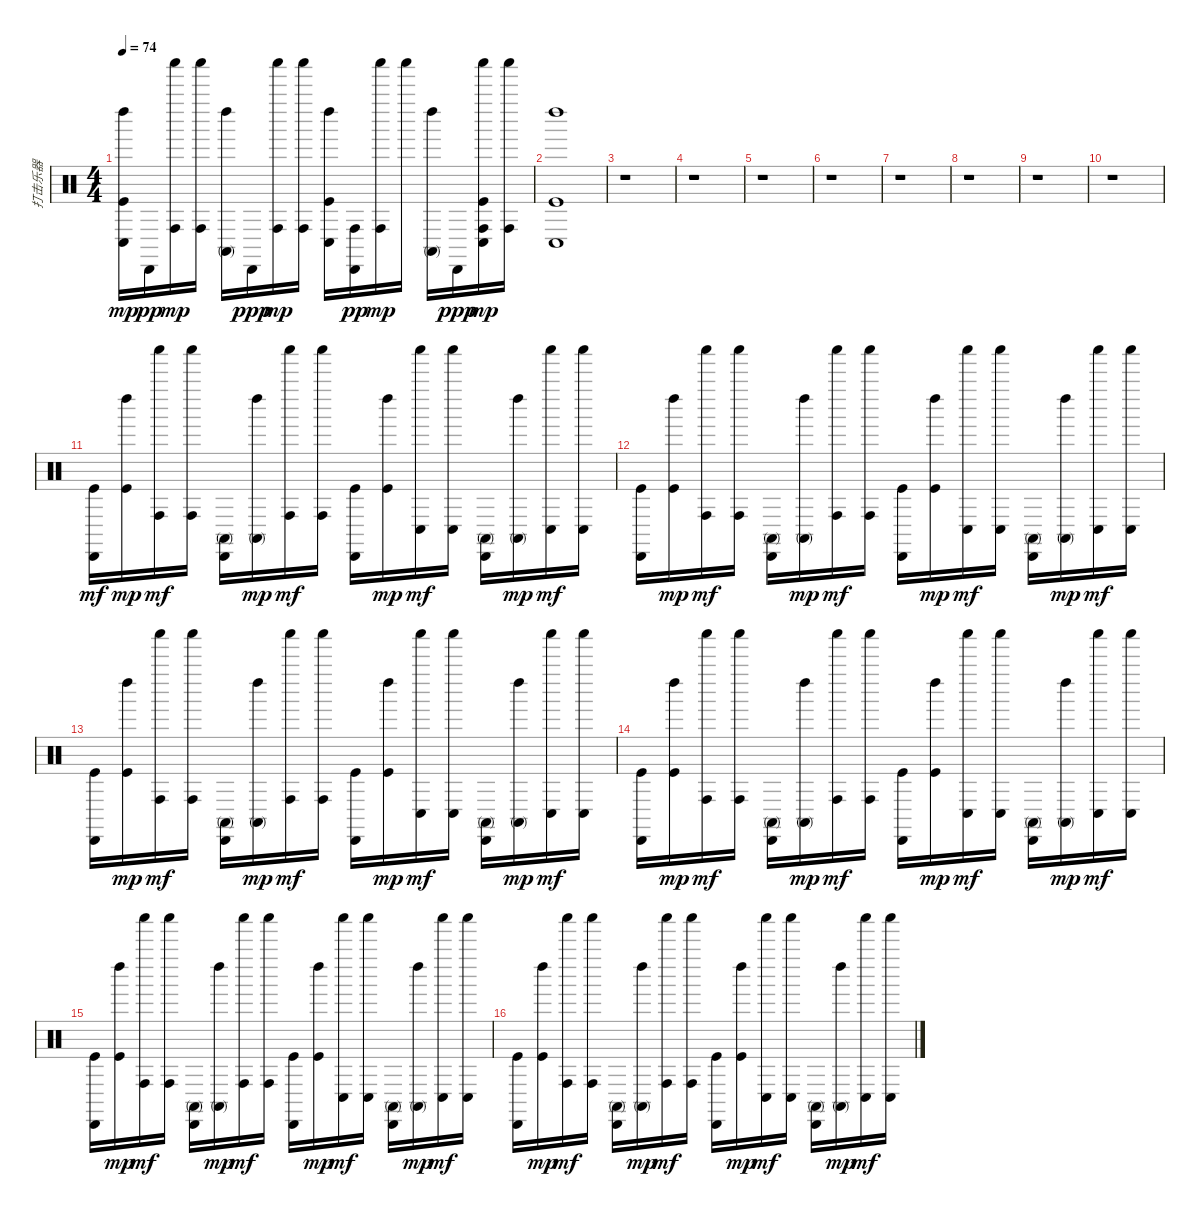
\track ("打击乐器" "打击乐器") {instrument percussion}
\staff {score}
\articulation defaults
\ts (4 4)
\tempo 74
\clef neutral
\ks c
("Kick (hit)" "Conga low (hit)" "Left Maraca (hit)").16{dy mp} "Cabasa (hit)".16{dy pp} ("Conga high (hit)" "Shaker (hit)").16{dy mp} ("Conga high (hit)" "Shaker (hit)").16 ("Conga high (mute)" "Left Maraca (hit)").16 "Cabasa (hit)".16{dy ppp} ("Conga high (hit)" "Shaker (hit)").16{dy mp} ("Conga high (hit)" "Shaker (hit)").16 ("Kick (hit)" "Conga low (hit)" "Left Maraca (hit)").16 ("Conga high (hit)" "Cabasa (hit)").16{dy pp} ("Conga high (hit)" "Shaker (hit)").16{dy mp} "Shaker (hit)".16 ("Conga high (mute)" "Left Maraca (hit)").16 "Cabasa (hit)".16{dy ppp} ("Kick (hit)" "Conga high (hit)" "Conga low (hit)" "Shaker (hit)").16{dy mp} ("Conga high (hit)" "Shaker (hit)").16 |
("Kick (hit)" "Conga low (hit)" "Left Maraca (hit)").1 |
r.1 |
r.1 |
r.1 |
r.1 |
r.1 |
r.1 |
r.1 |
r.1 |
("Kick (hit)" "Cabasa (hit)").16{dy mf} ("Kick (hit)" "Left Maraca (hit)").16{dy mp} ("Conga high (hit)" "Shaker (hit)").16{dy mf} ("Conga high (hit)" "Shaker (hit)").16 ("Conga high (mute)" "Cabasa (hit)").16 ("Conga high (mute)" "Left Maraca (hit)").16{dy mp} ("Conga high (hit)" "Shaker (hit)").16{dy mf} ("Conga high (hit)" "Shaker (hit)").16 ("Kick (hit)" "Cabasa (hit)").16 ("Kick (hit)" "Left Maraca (hit)").16{dy mp} ("Conga low (hit)" "Shaker (hit)").16{dy mf} ("Conga low (hit)" "Shaker (hit)").16 ("Conga high (mute)" "Cabasa (hit)").16 ("Conga high (mute)" "Left Maraca (hit)").16{dy mp} ("Conga low (hit)" "Shaker (hit)").16{dy mf} ("Conga low (hit)" "Shaker (hit)").16 |
("Kick (hit)" "Cabasa (hit)").16 ("Kick (hit)" "Left Maraca (hit)").16{dy mp} ("Conga high (hit)" "Shaker (hit)").16{dy mf} ("Conga high (hit)" "Shaker (hit)").16 ("Conga high (mute)" "Cabasa (hit)").16 ("Conga high (mute)" "Left Maraca (hit)").16{dy mp} ("Conga high (hit)" "Shaker (hit)").16{dy mf} ("Conga high (hit)" "Shaker (hit)").16 ("Kick (hit)" "Cabasa (hit)").16 ("Kick (hit)" "Left Maraca (hit)").16{dy mp} ("Conga low (hit)" "Shaker (hit)").16{dy mf} ("Conga low (hit)" "Shaker (hit)").16 ("Conga high (mute)" "Cabasa (hit)").16 ("Conga high (mute)" "Left Maraca (hit)").16{dy mp} ("Conga low (hit)" "Shaker (hit)").16{dy mf} ("Conga low (hit)" "Shaker (hit)").16 |
("Kick (hit)" "Cabasa (hit)").16 ("Kick (hit)" "Left Maraca (hit)").16{dy mp} ("Conga high (hit)" "Shaker (hit)").16{dy mf} ("Conga high (hit)" "Shaker (hit)").16 ("Conga high (mute)" "Cabasa (hit)").16 ("Conga high (mute)" "Left Maraca (hit)").16{dy mp} ("Conga high (hit)" "Shaker (hit)").16{dy mf} ("Conga high (hit)" "Shaker (hit)").16 ("Kick (hit)" "Cabasa (hit)").16 ("Kick (hit)" "Left Maraca (hit)").16{dy mp} ("Conga low (hit)" "Shaker (hit)").16{dy mf} ("Conga low (hit)" "Shaker (hit)").16 ("Conga high (mute)" "Cabasa (hit)").16 ("Conga high (mute)" "Left Maraca (hit)").16{dy mp} ("Conga low (hit)" "Shaker (hit)").16{dy mf} ("Conga low (hit)" "Shaker (hit)").16 |
("Kick (hit)" "Cabasa (hit)").16 ("Kick (hit)" "Left Maraca (hit)").16{dy mp} ("Conga high (hit)" "Shaker (hit)").16{dy mf} ("Conga high (hit)" "Shaker (hit)").16 ("Conga high (mute)" "Cabasa (hit)").16 ("Conga high (mute)" "Left Maraca (hit)").16{dy mp} ("Conga high (hit)" "Shaker (hit)").16{dy mf} ("Conga high (hit)" "Shaker (hit)").16 ("Kick (hit)" "Cabasa (hit)").16 ("Kick (hit)" "Left Maraca (hit)").16{dy mp} ("Conga low (hit)" "Shaker (hit)").16{dy mf} ("Conga low (hit)" "Shaker (hit)").16 ("Conga high (mute)" "Cabasa (hit)").16 ("Conga high (mute)" "Left Maraca (hit)").16{dy mp} ("Conga low (hit)" "Shaker (hit)").16{dy mf} ("Conga low (hit)" "Shaker (hit)").16 |
("Kick (hit)" "Cabasa (hit)").16 ("Kick (hit)" "Left Maraca (hit)").16{dy mp} ("Conga high (hit)" "Shaker (hit)").16{dy mf} ("Conga high (hit)" "Shaker (hit)").16 ("Conga high (mute)" "Cabasa (hit)").16 ("Conga high (mute)" "Left Maraca (hit)").16{dy mp} ("Conga high (hit)" "Shaker (hit)").16{dy mf} ("Conga high (hit)" "Shaker (hit)").16 ("Kick (hit)" "Cabasa (hit)").16 ("Kick (hit)" "Left Maraca (hit)").16{dy mp} ("Conga low (hit)" "Shaker (hit)").16{dy mf} ("Conga low (hit)" "Shaker (hit)").16 ("Conga high (mute)" "Cabasa (hit)").16 ("Conga high (mute)" "Left Maraca (hit)").16{dy mp} ("Conga low (hit)" "Shaker (hit)").16{dy mf} ("Conga low (hit)" "Shaker (hit)").16 |
("Kick (hit)" "Cabasa (hit)").16 ("Kick (hit)" "Left Maraca (hit)").16{dy mp} ("Conga high (hit)" "Shaker (hit)").16{dy mf} ("Conga high (hit)" "Shaker (hit)").16 ("Conga high (mute)" "Cabasa (hit)").16 ("Conga high (mute)" "Left Maraca (hit)").16{dy mp} ("Conga high (hit)" "Shaker (hit)").16{dy mf} ("Conga high (hit)" "Shaker (hit)").16 ("Kick (hit)" "Cabasa (hit)").16 ("Kick (hit)" "Left Maraca (hit)").16{dy mp} ("Conga low (hit)" "Shaker (hit)").16{dy mf} ("Conga low (hit)" "Shaker (hit)").16 ("Conga high (mute)" "Cabasa (hit)").16 ("Conga high (mute)" "Left Maraca (hit)").16{dy mp} ("Conga low (hit)" "Shaker (hit)").16{dy mf} ("Conga low (hit)" "Shaker (hit)").16
